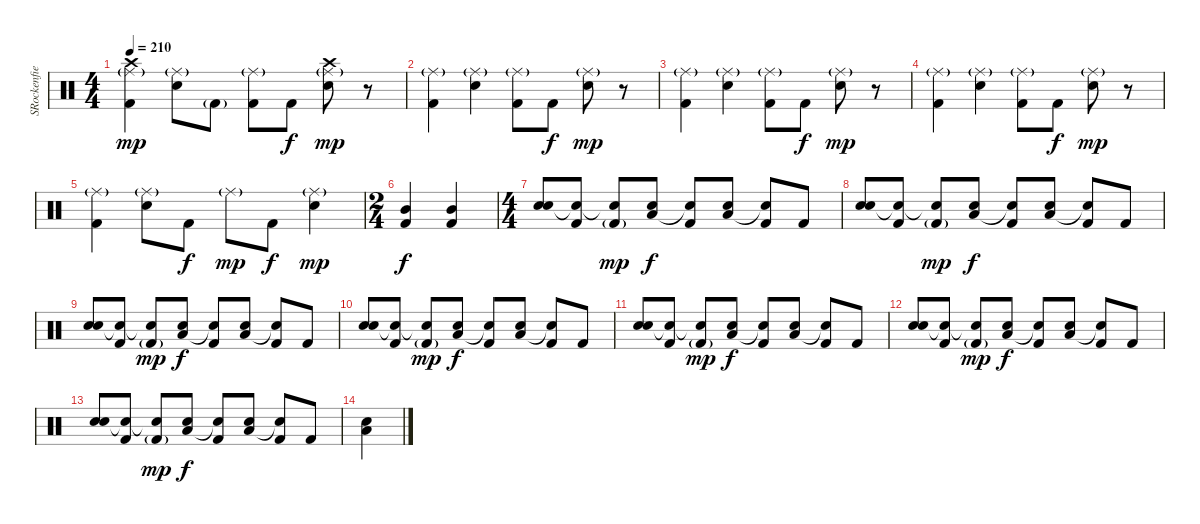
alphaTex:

\track ("SRockenfield" "SRockenfie") {instrument percussion}
\staff {score}
\articulation defaults
\ts (4 4)
\tempo 210
\clef neutral
\ks c
("Ride (middle)"{g} "Crash high (hit)" "Kick (hit) 2").4{dy mp} ("Ride (middle)"{g} "Electric Snare (hit)").8 "Kick (hit) 2"{g}.8 ("Ride (middle)"{g} "Kick (hit) 2").8 "Kick (hit) 2".8{dy f} ("Ride (middle)"{g} "Crash high (hit)" "Electric Snare (hit)").8{dy mp} r.8 |
("Ride (middle)"{g} "Kick (hit) 2").4 ("Ride (middle)"{g} "Electric Snare (hit)").4 ("Ride (middle)"{g} "Kick (hit) 2").8 "Kick (hit) 2".8{dy f} ("Ride (middle)"{g} "Electric Snare (hit)").8{dy mp} r.8 |
("Ride (middle)"{g} "Kick (hit) 2").4 ("Ride (middle)"{g} "Electric Snare (hit)").4 ("Ride (middle)"{g} "Kick (hit) 2").8 "Kick (hit) 2".8{dy f} ("Ride (middle)"{g} "Electric Snare (hit)").8{dy mp} r.8 |
("Ride (middle)"{g} "Kick (hit) 2").4 ("Ride (middle)"{g} "Electric Snare (hit)").4 ("Ride (middle)"{g} "Kick (hit) 2").8 "Kick (hit) 2".8{dy f} ("Ride (middle)"{g} "Electric Snare (hit)").8{dy mp} r.8 |
("Ride (middle)"{g} "Kick (hit) 2").4 ("Ride (middle)"{g} "Electric Snare (hit)").8 "Kick (hit) 2".8{dy f} "Ride (middle)"{g}.8{dy mp} "Kick (hit) 2".8{dy f} ("Ride (middle)"{g} "Electric Snare (hit)").4{dy mp} |
\ts (2 4)
("Mid Tom (hit)" "Kick (hit) 2").4{dy f} ("Mid Tom (hit)" "Kick (hit) 2").4 |
\ts (4 4)
("Electric Snare (hit)" "Electric Snare (hit)").8 ("Snare (hit)"{t} "Kick (hit) 2").8 ("Snare (hit)"{t} "Kick (hit) 2"{g}).8{dy mp} ("Low Floor Tom (hit)" "Electric Snare (hit)").8{dy f} ("Snare (hit)"{t} "Kick (hit) 2").8 ("Low Floor Tom (hit)" "Electric Snare (hit)").8 ("Snare (hit)"{t} "Kick (hit) 2").8 "Kick (hit) 2".8 |
("Electric Snare (hit)" "Electric Snare (hit)").8 ("Snare (hit)"{t} "Kick (hit) 2").8 ("Snare (hit)"{t} "Kick (hit) 2"{g}).8{dy mp} ("Low Floor Tom (hit)" "Electric Snare (hit)").8{dy f} ("Snare (hit)"{t} "Kick (hit) 2").8 ("Low Floor Tom (hit)" "Electric Snare (hit)").8 ("Snare (hit)"{t} "Kick (hit) 2").8 "Kick (hit) 2".8 |
("Electric Snare (hit)" "Electric Snare (hit)").8 ("Snare (hit)"{t} "Kick (hit) 2").8 ("Snare (hit)"{t} "Kick (hit) 2"{g}).8{dy mp} ("Low Floor Tom (hit)" "Electric Snare (hit)").8{dy f} ("Snare (hit)"{t} "Kick (hit) 2").8 ("Low Floor Tom (hit)" "Electric Snare (hit)").8 ("Snare (hit)"{t} "Kick (hit) 2").8 "Kick (hit) 2".8 |
("Electric Snare (hit)" "Electric Snare (hit)").8 ("Snare (hit)"{t} "Kick (hit) 2").8 ("Snare (hit)"{t} "Kick (hit) 2"{g}).8{dy mp} ("Low Floor Tom (hit)" "Electric Snare (hit)").8{dy f} ("Snare (hit)"{t} "Kick (hit) 2").8 ("Low Floor Tom (hit)" "Electric Snare (hit)").8 ("Snare (hit)"{t} "Kick (hit) 2").8 "Kick (hit) 2".8 |
("Electric Snare (hit)" "Electric Snare (hit)").8 ("Snare (hit)"{t} "Kick (hit) 2").8 ("Snare (hit)"{t} "Kick (hit) 2"{g}).8{dy mp} ("Low Floor Tom (hit)" "Electric Snare (hit)").8{dy f} ("Snare (hit)"{t} "Kick (hit) 2").8 ("Low Floor Tom (hit)" "Electric Snare (hit)").8 ("Snare (hit)"{t} "Kick (hit) 2").8 "Kick (hit) 2".8 |
("Electric Snare (hit)" "Electric Snare (hit)").8 ("Snare (hit)"{t} "Kick (hit) 2").8 ("Snare (hit)"{t} "Kick (hit) 2"{g}).8{dy mp} ("Low Floor Tom (hit)" "Electric Snare (hit)").8{dy f} ("Snare (hit)"{t} "Kick (hit) 2").8 ("Low Floor Tom (hit)" "Electric Snare (hit)").8 ("Snare (hit)"{t} "Kick (hit) 2").8 "Kick (hit) 2".8 |
("Electric Snare (hit)" "Electric Snare (hit)").8 ("Snare (hit)"{t} "Kick (hit) 2").8 ("Snare (hit)"{t} "Kick (hit) 2"{g}).8{dy mp} ("Low Floor Tom (hit)" "Electric Snare (hit)").8{dy f} ("Snare (hit)"{t} "Kick (hit) 2").8 ("Low Floor Tom (hit)" "Electric Snare (hit)").8 ("Snare (hit)"{t} "Kick (hit) 2").8 "Kick (hit) 2".8 |
("Low Floor Tom (hit)" "Electric Snare (hit)").4
